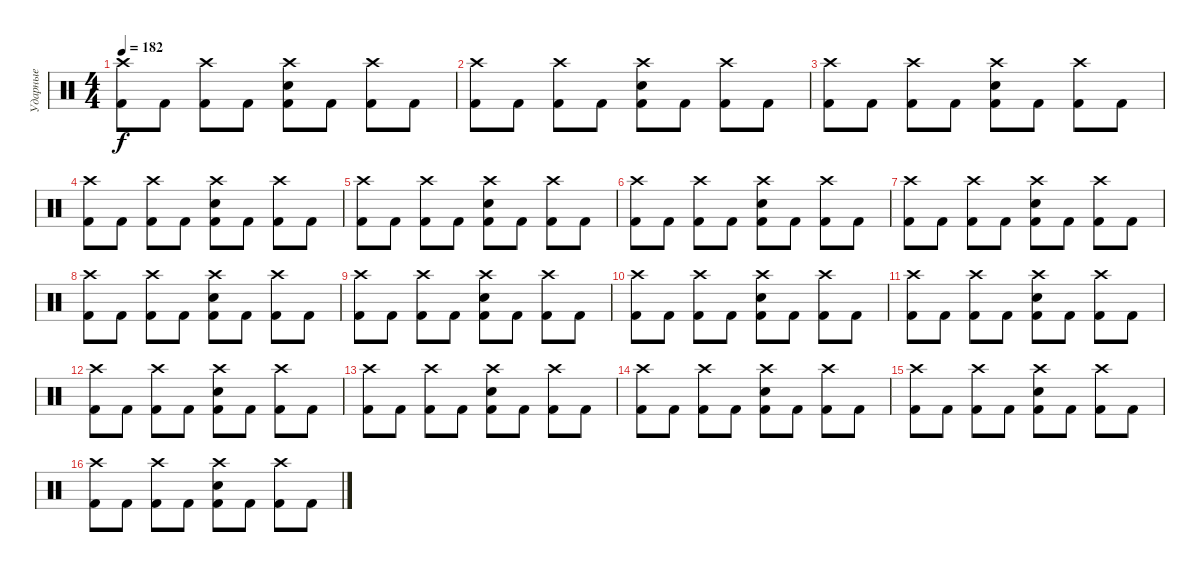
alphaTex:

\track ("Ударные" "Ударные") {instrument percussion}
\staff {score}
\articulation defaults
\ts (4 4)
\tempo 182
\clef neutral
\ks c
("Crash high (hit)" "Kick (hit) 2").8{dy f} "Kick (hit) 2".8 ("Crash high (hit)" "Kick (hit) 2").8 "Kick (hit) 2".8 ("Crash high (hit)" "Electric Snare (hit)" "Kick (hit) 2").8 "Kick (hit) 2".8 ("Crash high (hit)" "Kick (hit) 2").8 "Kick (hit) 2".8 |
("Crash high (hit)" "Kick (hit) 2").8 "Kick (hit) 2".8 ("Crash high (hit)" "Kick (hit) 2").8 "Kick (hit) 2".8 ("Crash high (hit)" "Electric Snare (hit)" "Kick (hit) 2").8 "Kick (hit) 2".8 ("Crash high (hit)" "Kick (hit) 2").8 "Kick (hit) 2".8 |
("Crash high (hit)" "Kick (hit) 2").8 "Kick (hit) 2".8 ("Crash high (hit)" "Kick (hit) 2").8 "Kick (hit) 2".8 ("Crash high (hit)" "Electric Snare (hit)" "Kick (hit) 2").8 "Kick (hit) 2".8 ("Crash high (hit)" "Kick (hit) 2").8 "Kick (hit) 2".8 |
("Crash high (hit)" "Kick (hit) 2").8 "Kick (hit) 2".8 ("Crash high (hit)" "Kick (hit) 2").8 "Kick (hit) 2".8 ("Crash high (hit)" "Electric Snare (hit)" "Kick (hit) 2").8 "Kick (hit) 2".8 ("Crash high (hit)" "Kick (hit) 2").8 "Kick (hit) 2".8 |
("Crash high (hit)" "Kick (hit) 2").8 "Kick (hit) 2".8 ("Crash high (hit)" "Kick (hit) 2").8 "Kick (hit) 2".8 ("Crash high (hit)" "Electric Snare (hit)" "Kick (hit) 2").8 "Kick (hit) 2".8 ("Crash high (hit)" "Kick (hit) 2").8 "Kick (hit) 2".8 |
("Crash high (hit)" "Kick (hit) 2").8 "Kick (hit) 2".8 ("Crash high (hit)" "Kick (hit) 2").8 "Kick (hit) 2".8 ("Crash high (hit)" "Electric Snare (hit)" "Kick (hit) 2").8 "Kick (hit) 2".8 ("Crash high (hit)" "Kick (hit) 2").8 "Kick (hit) 2".8 |
("Crash high (hit)" "Kick (hit) 2").8 "Kick (hit) 2".8 ("Crash high (hit)" "Kick (hit) 2").8 "Kick (hit) 2".8 ("Crash high (hit)" "Electric Snare (hit)" "Kick (hit) 2").8 "Kick (hit) 2".8 ("Crash high (hit)" "Kick (hit) 2").8 "Kick (hit) 2".8 |
("Crash high (hit)" "Kick (hit) 2").8 "Kick (hit) 2".8 ("Crash high (hit)" "Kick (hit) 2").8 "Kick (hit) 2".8 ("Crash high (hit)" "Electric Snare (hit)" "Kick (hit) 2").8 "Kick (hit) 2".8 ("Crash high (hit)" "Kick (hit) 2").8 "Kick (hit) 2".8 |
("Crash high (hit)" "Kick (hit) 2").8 "Kick (hit) 2".8 ("Crash high (hit)" "Kick (hit) 2").8 "Kick (hit) 2".8 ("Crash high (hit)" "Electric Snare (hit)" "Kick (hit) 2").8 "Kick (hit) 2".8 ("Crash high (hit)" "Kick (hit) 2").8 "Kick (hit) 2".8 |
("Crash high (hit)" "Kick (hit) 2").8 "Kick (hit) 2".8 ("Crash high (hit)" "Kick (hit) 2").8 "Kick (hit) 2".8 ("Crash high (hit)" "Electric Snare (hit)" "Kick (hit) 2").8 "Kick (hit) 2".8 ("Crash high (hit)" "Kick (hit) 2").8 "Kick (hit) 2".8 |
("Crash high (hit)" "Kick (hit) 2").8 "Kick (hit) 2".8 ("Crash high (hit)" "Kick (hit) 2").8 "Kick (hit) 2".8 ("Crash high (hit)" "Electric Snare (hit)" "Kick (hit) 2").8 "Kick (hit) 2".8 ("Crash high (hit)" "Kick (hit) 2").8 "Kick (hit) 2".8 |
("Crash high (hit)" "Kick (hit) 2").8 "Kick (hit) 2".8 ("Crash high (hit)" "Kick (hit) 2").8 "Kick (hit) 2".8 ("Crash high (hit)" "Electric Snare (hit)" "Kick (hit) 2").8 "Kick (hit) 2".8 ("Crash high (hit)" "Kick (hit) 2").8 "Kick (hit) 2".8 |
("Crash high (hit)" "Kick (hit) 2").8 "Kick (hit) 2".8 ("Crash high (hit)" "Kick (hit) 2").8 "Kick (hit) 2".8 ("Crash high (hit)" "Electric Snare (hit)" "Kick (hit) 2").8 "Kick (hit) 2".8 ("Crash high (hit)" "Kick (hit) 2").8 "Kick (hit) 2".8 |
("Crash high (hit)" "Kick (hit) 2").8 "Kick (hit) 2".8 ("Crash high (hit)" "Kick (hit) 2").8 "Kick (hit) 2".8 ("Crash high (hit)" "Electric Snare (hit)" "Kick (hit) 2").8 "Kick (hit) 2".8 ("Crash high (hit)" "Kick (hit) 2").8 "Kick (hit) 2".8 |
("Crash high (hit)" "Kick (hit) 2").8 "Kick (hit) 2".8 ("Crash high (hit)" "Kick (hit) 2").8 "Kick (hit) 2".8 ("Crash high (hit)" "Electric Snare (hit)" "Kick (hit) 2").8 "Kick (hit) 2".8 ("Crash high (hit)" "Kick (hit) 2").8 "Kick (hit) 2".8 |
("Crash high (hit)" "Kick (hit) 2").8 "Kick (hit) 2".8 ("Crash high (hit)" "Kick (hit) 2").8 "Kick (hit) 2".8 ("Crash high (hit)" "Electric Snare (hit)" "Kick (hit) 2").8 "Kick (hit) 2".8 ("Crash high (hit)" "Kick (hit) 2").8 "Kick (hit) 2".8
